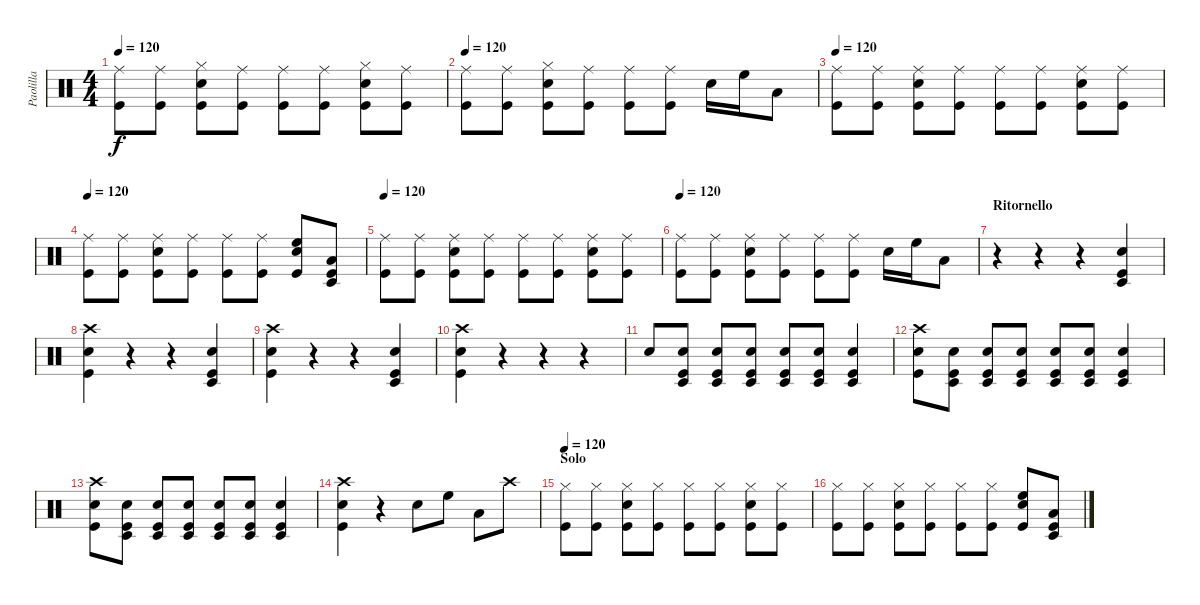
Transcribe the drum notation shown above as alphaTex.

\track ("Paolilla" "Paolilla") {instrument percussion}
\staff {score}
\articulation defaults
\ts (4 4)
\tempo 120
\clef neutral
\ks c
("Ride (middle)" "Kick (hit)").8{dy f} ("Ride (middle)" "Kick (hit)").8 ("Hi-Hat (closed)" "Snare (hit) 2" "Kick (hit)").8 ("Ride (middle)" "Kick (hit)").8 ("Ride (middle)" "Kick (hit)").8 ("Ride (middle)" "Kick (hit)").8 ("Hi-Hat (closed)" "Snare (hit) 2" "Kick (hit)").8 ("Ride (middle)" "Kick (hit)").8 |
\tempo 120
("Ride (middle)" "Kick (hit)").8 ("Ride (middle)" "Kick (hit)").8 ("Hi-Hat (closed)" "Snare (hit) 2" "Kick (hit)").8 ("Ride (middle)" "Kick (hit)").8 ("Ride (middle)" "Kick (hit)").8 ("Ride (middle)" "Kick (hit)").8 "Snare (hit) 2".16 "High Floor Tom (hit)".16 "Low Tom (hit)".8 |
\tempo 120
("Ride (middle)" "Kick (hit)").8 ("Ride (middle)" "Kick (hit)").8 ("Ride (middle)" "Snare (hit) 2" "Kick (hit)").8 ("Ride (middle)" "Kick (hit)").8 ("Ride (middle)" "Kick (hit)").8 ("Ride (middle)" "Kick (hit)").8 ("Ride (middle)" "Snare (hit) 2" "Kick (hit)").8 ("Ride (middle)" "Kick (hit)").8 |
\tempo 120
("Ride (middle)" "Kick (hit)").8 ("Ride (middle)" "Kick (hit)").8 ("Ride (middle)" "Snare (hit) 2" "Kick (hit)").8 ("Ride (middle)" "Kick (hit)").8 ("Ride (middle)" "Kick (hit)").8 ("Ride (middle)" "Kick (hit)").8 ("Snare (hit) 2" "High Floor Tom (hit)" "Kick (hit)").8 ("Timbale low (hit)" "Low Tom (hit)" "Kick (hit)").8 |
\tempo 120
("Ride (middle)" "Kick (hit)").8 ("Ride (middle)" "Kick (hit)").8 ("Ride (middle)" "Snare (hit) 2" "Kick (hit)").8 ("Ride (middle)" "Kick (hit)").8 ("Ride (middle)" "Kick (hit)").8 ("Ride (middle)" "Kick (hit)").8 ("Ride (middle)" "Snare (hit) 2" "Kick (hit)").8 ("Ride (middle)" "Kick (hit)").8 |
\tempo 120
("Ride (middle)" "Kick (hit)").8 ("Ride (middle)" "Kick (hit)").8 ("Ride (middle)" "Snare (hit) 2" "Kick (hit)").8 ("Ride (middle)" "Kick (hit)").8 ("Ride (middle)" "Kick (hit)").8 ("Ride (middle)" "Kick (hit)").8 "Snare (hit) 2".16 "High Floor Tom (hit)".16 "Low Tom (hit)".8 |
\section ("" "Ritornello")
r.4 r.4 r.4 ("Timbale low (hit)" "Snare (hit) 2" "Kick (hit)").4 |
("Kick (hit)" "Crash high (hit)" "Snare (hit) 2").4 r.4 r.4 ("Timbale low (hit)" "Snare (hit) 2" "Kick (hit)").4 |
("Kick (hit)" "Crash high (hit)" "Snare (hit) 2").4 r.4 r.4 ("Timbale low (hit)" "Snare (hit) 2" "Kick (hit)").4 |
("Kick (hit)" "Crash high (hit)" "Snare (hit) 2").4 r.4 r.4 r.4 |
"Snare (hit) 2".8 ("Kick (hit)" "Timbale low (hit)" "Snare (hit) 2").8{volume 4} ("Kick (hit)" "Timbale low (hit)" "Snare (hit) 2").8{volume 5} ("Kick (hit)" "Timbale low (hit)" "Snare (hit) 2").8{volume 7} ("Kick (hit)" "Timbale low (hit)" "Snare (hit) 2").8{volume 9} ("Kick (hit)" "Timbale low (hit)" "Snare (hit) 2").8{volume 11} ("Timbale low (hit)" "Snare (hit) 2" "Kick (hit)").4{volume 16} |
("Crash high (hit)" "Kick (hit)" "Snare (hit) 2").8 ("Kick (hit)" "Timbale low (hit)" "Snare (hit) 2").8{volume 4} ("Kick (hit)" "Timbale low (hit)" "Snare (hit) 2").8{volume 5} ("Kick (hit)" "Timbale low (hit)" "Snare (hit) 2").8{volume 7} ("Kick (hit)" "Timbale low (hit)" "Snare (hit) 2").8{volume 9} ("Kick (hit)" "Timbale low (hit)" "Snare (hit) 2").8{volume 11} ("Timbale low (hit)" "Snare (hit) 2" "Kick (hit)").4{volume 16} |
("Kick (hit)" "Crash high (hit)" "Snare (hit) 2").8 ("Kick (hit)" "Timbale low (hit)" "Snare (hit) 2").8{volume 4} ("Kick (hit)" "Timbale low (hit)" "Snare (hit) 2").8{volume 5} ("Kick (hit)" "Timbale low (hit)" "Snare (hit) 2").8{volume 7} ("Kick (hit)" "Timbale low (hit)" "Snare (hit) 2").8{volume 9} ("Kick (hit)" "Timbale low (hit)" "Snare (hit) 2").8{volume 11} ("Timbale low (hit)" "Snare (hit) 2" "Kick (hit)").4{volume 16} |
("Kick (hit)" "Crash high (hit)" "Snare (hit) 2").4 r.4 "Snare (hit) 2".8 "High Floor Tom (hit)".8 "Low Tom (hit)".8 "Crash high (hit)".8 |
\section ("" "Solo")
\tempo 120
("Hi-Hat (closed)" "Kick (hit)").8 ("Hi-Hat (closed)" "Kick (hit)").8 ("Hi-Hat (closed)" "Snare (hit) 2" "Kick (hit)").8 ("Hi-Hat (closed)" "Kick (hit)").8 ("Hi-Hat (closed)" "Kick (hit)").8 ("Hi-Hat (closed)" "Kick (hit)").8 ("Hi-Hat (closed)" "Snare (hit) 2" "Kick (hit)").8 ("Hi-Hat (closed)" "Kick (hit)").8 |
("Hi-Hat (closed)" "Kick (hit)").8 ("Hi-Hat (closed)" "Kick (hit)").8 ("Hi-Hat (closed)" "Snare (hit) 2" "Kick (hit)").8 ("Hi-Hat (closed)" "Kick (hit)").8 ("Hi-Hat (closed)" "Kick (hit)").8 ("Hi-Hat (closed)" "Kick (hit)").8 ("Snare (hit) 2" "High Floor Tom (hit)" "Kick (hit)").8 ("Timbale low (hit)" "Low Tom (hit)" "Kick (hit)").8
